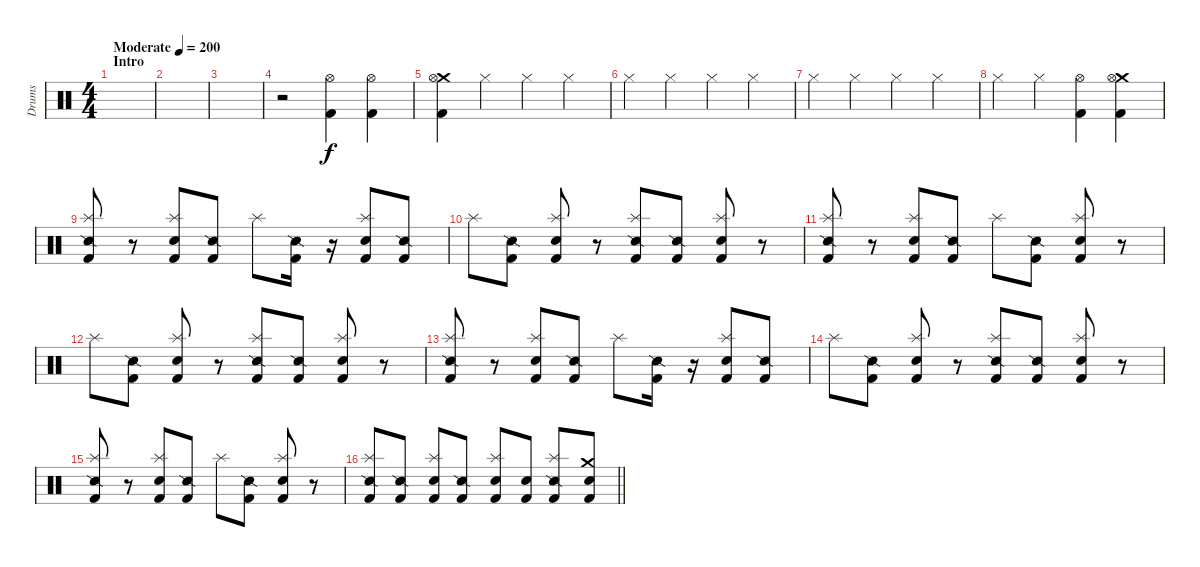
\track ("Drums" "Drums") {instrument percussion}
\staff {score}
\articulation defaults
\ts (4 4)
\section ("" "Intro")
\tempo (200 "Moderate")
\clef neutral
\ks c
|
|
|
r.2 ("Hi-Hat (open)" "Kick (hit) 2").4 ("Hi-Hat (open)" "Kick (hit) 2").4 |
("Crash medium (hit)" "Hi-Hat (open)" "Kick (hit) 2").4 "Hi-Hat (closed)".4 "Hi-Hat (closed)".4 "Hi-Hat (closed)".4 |
"Hi-Hat (closed)".4 "Hi-Hat (closed)".4 "Hi-Hat (closed)".4 "Hi-Hat (closed)".4 |
"Hi-Hat (closed)".4 "Hi-Hat (closed)".4 "Hi-Hat (closed)".4 "Hi-Hat (closed)".4 |
"Hi-Hat (closed)".4 "Hi-Hat (closed)".4 ("Hi-Hat (open)" "Kick (hit) 2").4 ("Crash medium (hit)" "Hi-Hat (open)" "Kick (hit) 2").4 |
("Splash (hit)" "Snare (side stick) 2" "Kick (hit) 2").8 r.8 ("Splash (hit)" "Snare (hit) 2" "Kick (hit) 2").8 ("Snare (side stick) 2" "Kick (hit) 2").8 "Splash (hit)".8 ("Snare (side stick) 2" "Kick (hit) 2").16 r.16 ("Splash (hit)" "Snare (hit) 2" "Kick (hit) 2").8 ("Snare (side stick) 2" "Kick (hit) 2").8 |
"Splash (hit)".8 ("Snare (side stick) 2" "Kick (hit) 2").8 ("Splash (hit)" "Snare (hit) 2" "Kick (hit) 2").8 r.8 ("Splash (hit)" "Snare (side stick) 2" "Kick (hit) 2").8 ("Snare (side stick) 2" "Kick (hit) 2").8 ("Splash (hit)" "Snare (hit) 2" "Kick (hit) 2").8 r.8 |
("Splash (hit)" "Snare (side stick) 2" "Kick (hit) 2").8 r.8 ("Splash (hit)" "Snare (hit) 2" "Kick (hit) 2").8 ("Snare (side stick) 2" "Kick (hit) 2").8 "Splash (hit)".8 ("Snare (side stick) 2" "Kick (hit) 2").8 ("Splash (hit)" "Kick (hit) 2" "Snare (hit) 2").8 r.8 |
"Splash (hit)".8 ("Snare (side stick) 2" "Kick (hit) 2").8 ("Splash (hit)" "Snare (hit) 2" "Kick (hit) 2").8 r.8 ("Splash (hit)" "Snare (side stick) 2" "Kick (hit) 2").8 ("Snare (side stick) 2" "Kick (hit) 2").8 ("Splash (hit)" "Snare (hit) 2" "Kick (hit) 2").8 r.8 |
("Splash (hit)" "Snare (side stick) 2" "Kick (hit) 2").8 r.8 ("Splash (hit)" "Snare (hit) 2" "Kick (hit) 2").8 ("Snare (side stick) 2" "Kick (hit) 2").8 "Splash (hit)".8 ("Snare (side stick) 2" "Kick (hit) 2").16 r.16 ("Splash (hit)" "Snare (hit) 2" "Kick (hit) 2").8 ("Snare (side stick) 2" "Kick (hit) 2").8 |
"Splash (hit)".8 ("Snare (side stick) 2" "Kick (hit) 2").8 ("Splash (hit)" "Snare (hit) 2" "Kick (hit) 2").8 r.8 ("Splash (hit)" "Snare (side stick) 2" "Kick (hit) 2").8 ("Snare (side stick) 2" "Kick (hit) 2").8 ("Splash (hit)" "Snare (hit) 2" "Kick (hit) 2").8 r.8 |
("Splash (hit)" "Snare (side stick) 2" "Kick (hit) 2").8 r.8 ("Splash (hit)" "Snare (hit) 2" "Kick (hit) 2").8 ("Snare (side stick) 2" "Kick (hit) 2").8 "Splash (hit)".8 ("Snare (side stick) 2" "Kick (hit) 2").8 ("Splash (hit)" "Kick (hit) 2" "Snare (hit) 2").8 r.8 |
\barLineRight lightlight
("Splash (hit)" "Snare (side stick) 2" "Kick (hit) 2").8 ("Snare (side stick) 2" "Kick (hit) 2").8 ("Splash (hit)" "Kick (hit) 2" "Snare (hit) 2").8 ("Snare (side stick) 2" "Kick (hit) 2").8 ("Splash (hit)" "Snare (hit) 2" "Kick (hit) 2").8 ("Snare (hit) 2" "Kick (hit) 2").8 ("Splash (hit)" "Snare (side stick) 2" "Kick (hit) 2").8 ("Crash medium (hit)" "Snare (hit) 2" "Kick (hit) 2").8
